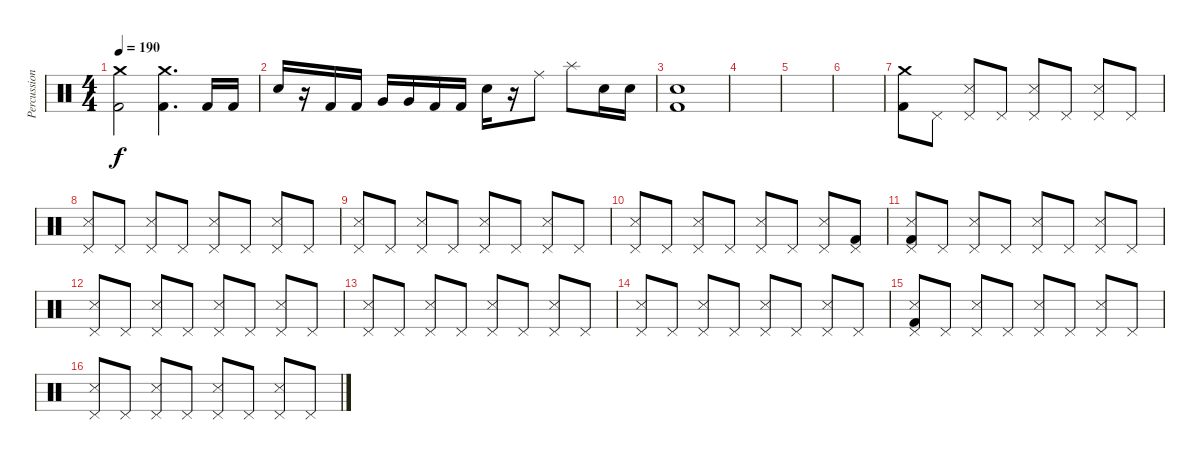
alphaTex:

\track ("Percussion" "Percussion") {instrument percussion}
\staff {score}
\articulation defaults
\ts (4 4)
\tempo 190
\clef neutral
\ks c
("Crash medium (hit)" "Kick (hit) 2").2{dy f} ("Crash medium (hit)" "Kick (hit) 2").4{d} "Kick (hit) 2".16 "Kick (hit) 2".16 |
"Snare (hit) 2".16 r.16 "Kick (hit) 2".16 "Kick (hit) 2".16 "Very Low Tom (hit)".16 "Very Low Tom (hit)".16 "Kick (hit) 2".16 "Kick (hit) 2".16 "Snare (hit) 2".16 r.16 "Ride (middle)".8 "Splash (hit)".8 "Snare (hit) 2".16 "Snare (hit) 2".16 |
("Snare (hit) 2" "Kick (hit) 2").1 |
|
|
|
("Crash medium (hit)" "Kick (hit) 2").8 "Pedal Hi-Hat (hit)".8 ("Pedal Hi-Hat (hit)" "Snare (side stick) 3").8 "Pedal Hi-Hat (hit)".8 ("Pedal Hi-Hat (hit)" "Snare (side stick) 3").8 "Pedal Hi-Hat (hit)".8 ("Pedal Hi-Hat (hit)" "Snare (side stick) 3").8 "Pedal Hi-Hat (hit)".8 |
("Pedal Hi-Hat (hit)" "Snare (side stick) 3").8 "Pedal Hi-Hat (hit)".8 ("Pedal Hi-Hat (hit)" "Snare (side stick) 3").8 "Pedal Hi-Hat (hit)".8 ("Pedal Hi-Hat (hit)" "Snare (side stick) 3").8 "Pedal Hi-Hat (hit)".8 ("Pedal Hi-Hat (hit)" "Snare (side stick) 3").8 "Pedal Hi-Hat (hit)".8 |
("Pedal Hi-Hat (hit)" "Snare (side stick) 3").8 "Pedal Hi-Hat (hit)".8 ("Pedal Hi-Hat (hit)" "Snare (side stick) 3").8 "Pedal Hi-Hat (hit)".8 ("Pedal Hi-Hat (hit)" "Snare (side stick) 3").8 "Pedal Hi-Hat (hit)".8 ("Pedal Hi-Hat (hit)" "Snare (side stick) 3").8 "Pedal Hi-Hat (hit)".8 |
("Pedal Hi-Hat (hit)" "Snare (side stick) 3").8 "Pedal Hi-Hat (hit)".8 ("Pedal Hi-Hat (hit)" "Snare (side stick) 3").8 "Pedal Hi-Hat (hit)".8 ("Pedal Hi-Hat (hit)" "Snare (side stick) 3").8 "Pedal Hi-Hat (hit)".8 ("Pedal Hi-Hat (hit)" "Snare (side stick) 3").8 ("Pedal Hi-Hat (hit)" "Kick (hit) 2").8 |
("Pedal Hi-Hat (hit)" "Snare (side stick) 3" "Kick (hit) 2").8 "Pedal Hi-Hat (hit)".8 ("Pedal Hi-Hat (hit)" "Snare (side stick) 3").8 "Pedal Hi-Hat (hit)".8 ("Pedal Hi-Hat (hit)" "Snare (side stick) 3").8 "Pedal Hi-Hat (hit)".8 ("Pedal Hi-Hat (hit)" "Snare (side stick) 3").8 "Pedal Hi-Hat (hit)".8 |
("Pedal Hi-Hat (hit)" "Snare (side stick) 3").8 "Pedal Hi-Hat (hit)".8 ("Pedal Hi-Hat (hit)" "Snare (side stick) 3").8 "Pedal Hi-Hat (hit)".8 ("Pedal Hi-Hat (hit)" "Snare (side stick) 3").8 "Pedal Hi-Hat (hit)".8 ("Pedal Hi-Hat (hit)" "Snare (side stick) 3").8 "Pedal Hi-Hat (hit)".8 |
("Pedal Hi-Hat (hit)" "Snare (side stick) 3").8 "Pedal Hi-Hat (hit)".8 ("Pedal Hi-Hat (hit)" "Snare (side stick) 3").8 "Pedal Hi-Hat (hit)".8 ("Pedal Hi-Hat (hit)" "Snare (side stick) 3").8 "Pedal Hi-Hat (hit)".8 ("Pedal Hi-Hat (hit)" "Snare (side stick) 3").8 "Pedal Hi-Hat (hit)".8 |
("Pedal Hi-Hat (hit)" "Snare (side stick) 3").8 "Pedal Hi-Hat (hit)".8 ("Pedal Hi-Hat (hit)" "Snare (side stick) 3").8 "Pedal Hi-Hat (hit)".8 ("Pedal Hi-Hat (hit)" "Snare (side stick) 3").8 "Pedal Hi-Hat (hit)".8 ("Pedal Hi-Hat (hit)" "Snare (side stick) 3").8 "Pedal Hi-Hat (hit)".8 |
("Pedal Hi-Hat (hit)" "Snare (side stick) 3" "Kick (hit) 2").8 "Pedal Hi-Hat (hit)".8 ("Pedal Hi-Hat (hit)" "Snare (side stick) 3").8 "Pedal Hi-Hat (hit)".8 ("Pedal Hi-Hat (hit)" "Snare (side stick) 3").8 "Pedal Hi-Hat (hit)".8 ("Pedal Hi-Hat (hit)" "Snare (side stick) 3").8 "Pedal Hi-Hat (hit)".8 |
("Pedal Hi-Hat (hit)" "Snare (side stick) 3").8 "Pedal Hi-Hat (hit)".8 ("Pedal Hi-Hat (hit)" "Snare (side stick) 3").8 "Pedal Hi-Hat (hit)".8 ("Pedal Hi-Hat (hit)" "Snare (side stick) 3").8 "Pedal Hi-Hat (hit)".8 ("Pedal Hi-Hat (hit)" "Snare (side stick) 3").8 "Pedal Hi-Hat (hit)".8
